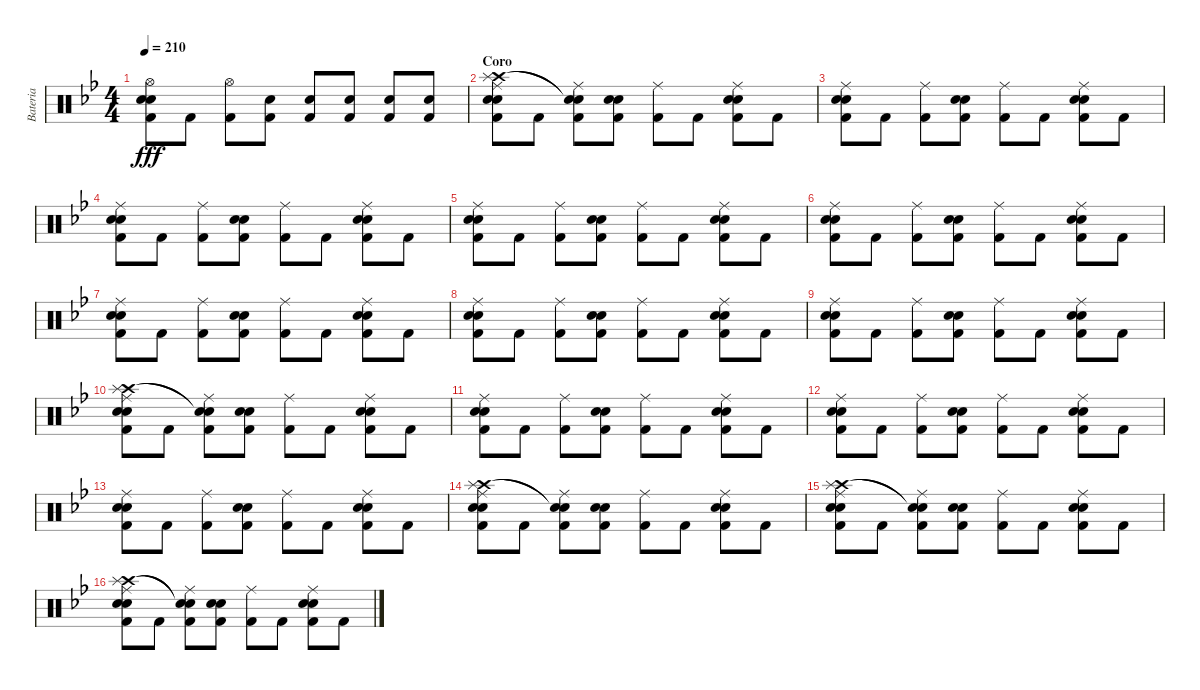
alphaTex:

\track ("Bateria" "Bateria") {instrument percussion}
\staff {score}
\articulation defaults
\ts (4 4)
\tempo 210
\clef neutral
\ks gminor
("Hi-Hat (open)" "Snare (hit) 2" "Kick (hit) 2" "Electric Snare (hit)").8{dy fff} "Kick (hit) 2".8 ("Hi-Hat (open)" "Kick (hit) 2").8 ("Snare (hit) 2" "Kick (hit) 2").8 ("Snare (hit) 2" "Kick (hit) 2").8 ("Snare (hit) 2" "Kick (hit) 2").8 ("Snare (hit) 2" "Kick (hit) 2").8 ("Snare (hit) 2" "Kick (hit) 2").8 |
\section ("" "Coro")
("Ride (middle)" "Crash high (hit)" "Splash (hit)" "Snare (hit) 2" "Electric Snare (hit)" "Kick (hit) 2").8 "Kick (hit) 2".8 ("Ride (middle)" "Snare (hit)"{t} "Snare (hit)"{t} "Kick (hit) 2").8 ("Snare (hit) 2" "Electric Snare (hit)" "Kick (hit) 2").8 ("Ride (middle)" "Kick (hit) 2").8 "Kick (hit) 2".8 ("Ride (middle)" "Snare (hit) 2" "Electric Snare (hit)" "Kick (hit) 2").8 "Kick (hit) 2".8 |
("Ride (middle)" "Snare (hit) 2" "Kick (hit) 2" "Electric Snare (hit)").8 "Kick (hit) 2".8 ("Ride (middle)" "Kick (hit) 2").8 ("Snare (hit) 2" "Kick (hit) 2" "Electric Snare (hit)").8 ("Ride (middle)" "Kick (hit) 2").8 "Kick (hit) 2".8 ("Ride (middle)" "Snare (hit) 2" "Kick (hit) 2" "Electric Snare (hit)").8 "Kick (hit) 2".8 |
("Ride (middle)" "Snare (hit) 2" "Kick (hit) 2" "Electric Snare (hit)").8 "Kick (hit) 2".8 ("Ride (middle)" "Kick (hit) 2").8 ("Snare (hit) 2" "Kick (hit) 2" "Electric Snare (hit)").8 ("Ride (middle)" "Kick (hit) 2").8 "Kick (hit) 2".8 ("Ride (middle)" "Snare (hit) 2" "Kick (hit) 2" "Electric Snare (hit)").8 "Kick (hit) 2".8 |
("Ride (middle)" "Snare (hit) 2" "Kick (hit) 2" "Electric Snare (hit)").8 "Kick (hit) 2".8 ("Ride (middle)" "Kick (hit) 2").8 ("Snare (hit) 2" "Kick (hit) 2" "Electric Snare (hit)").8 ("Ride (middle)" "Kick (hit) 2").8 "Kick (hit) 2".8 ("Ride (middle)" "Snare (hit) 2" "Kick (hit) 2" "Electric Snare (hit)").8 "Kick (hit) 2".8 |
("Ride (middle)" "Snare (hit) 2" "Kick (hit) 2" "Electric Snare (hit)").8 "Kick (hit) 2".8 ("Ride (middle)" "Kick (hit) 2").8 ("Snare (hit) 2" "Kick (hit) 2" "Electric Snare (hit)").8 ("Ride (middle)" "Kick (hit) 2").8 "Kick (hit) 2".8 ("Ride (middle)" "Snare (hit) 2" "Kick (hit) 2" "Electric Snare (hit)").8 "Kick (hit) 2".8 |
("Ride (middle)" "Snare (hit) 2" "Kick (hit) 2" "Electric Snare (hit)").8 "Kick (hit) 2".8 ("Ride (middle)" "Kick (hit) 2").8 ("Snare (hit) 2" "Kick (hit) 2" "Electric Snare (hit)").8 ("Ride (middle)" "Kick (hit) 2").8 "Kick (hit) 2".8 ("Ride (middle)" "Snare (hit) 2" "Kick (hit) 2" "Electric Snare (hit)").8 "Kick (hit) 2".8 |
("Ride (middle)" "Snare (hit) 2" "Kick (hit) 2" "Electric Snare (hit)").8 "Kick (hit) 2".8 ("Ride (middle)" "Kick (hit) 2").8 ("Snare (hit) 2" "Kick (hit) 2" "Electric Snare (hit)").8 ("Ride (middle)" "Kick (hit) 2").8 "Kick (hit) 2".8 ("Ride (middle)" "Snare (hit) 2" "Kick (hit) 2" "Electric Snare (hit)").8 "Kick (hit) 2".8 |
("Ride (middle)" "Snare (hit) 2" "Kick (hit) 2" "Electric Snare (hit)").8 "Kick (hit) 2".8 ("Ride (middle)" "Kick (hit) 2").8 ("Snare (hit) 2" "Kick (hit) 2" "Electric Snare (hit)").8 ("Ride (middle)" "Kick (hit) 2").8 "Kick (hit) 2".8 ("Ride (middle)" "Snare (hit) 2" "Kick (hit) 2" "Electric Snare (hit)").8 "Kick (hit) 2".8 |
("Ride (middle)" "Crash high (hit)" "Splash (hit)" "Snare (hit) 2" "Kick (hit) 2" "Electric Snare (hit)").8 "Kick (hit) 2".8 ("Ride (middle)" "Snare (hit)"{t} "Snare (hit)"{t} "Kick (hit) 2").8 ("Snare (hit) 2" "Kick (hit) 2" "Electric Snare (hit)").8 ("Ride (middle)" "Kick (hit) 2").8 "Kick (hit) 2".8 ("Ride (middle)" "Snare (hit) 2" "Kick (hit) 2" "Electric Snare (hit)").8 "Kick (hit) 2".8 |
("Ride (middle)" "Snare (hit) 2" "Kick (hit) 2" "Electric Snare (hit)").8 "Kick (hit) 2".8 ("Ride (middle)" "Kick (hit) 2").8 ("Snare (hit) 2" "Kick (hit) 2" "Electric Snare (hit)").8 ("Ride (middle)" "Kick (hit) 2").8 "Kick (hit) 2".8 ("Ride (middle)" "Snare (hit) 2" "Kick (hit) 2" "Electric Snare (hit)").8 "Kick (hit) 2".8 |
("Ride (middle)" "Snare (hit) 2" "Kick (hit) 2" "Electric Snare (hit)").8 "Kick (hit) 2".8 ("Ride (middle)" "Kick (hit) 2").8 ("Snare (hit) 2" "Kick (hit) 2" "Electric Snare (hit)").8 ("Ride (middle)" "Kick (hit) 2").8 "Kick (hit) 2".8 ("Ride (middle)" "Snare (hit) 2" "Kick (hit) 2" "Electric Snare (hit)").8 "Kick (hit) 2".8 |
("Ride (middle)" "Snare (hit) 2" "Kick (hit) 2" "Electric Snare (hit)").8 "Kick (hit) 2".8 ("Ride (middle)" "Kick (hit) 2").8 ("Snare (hit) 2" "Kick (hit) 2" "Electric Snare (hit)").8 ("Ride (middle)" "Kick (hit) 2").8 "Kick (hit) 2".8 ("Ride (middle)" "Snare (hit) 2" "Kick (hit) 2" "Electric Snare (hit)").8 "Kick (hit) 2".8 |
("Ride (middle)" "Crash high (hit)" "Splash (hit)" "Snare (hit) 2" "Kick (hit) 2" "Electric Snare (hit)").8 "Kick (hit) 2".8 ("Ride (middle)" "Snare (hit)"{t} "Snare (hit)"{t} "Kick (hit) 2").8 ("Snare (hit) 2" "Kick (hit) 2" "Electric Snare (hit)").8 ("Ride (middle)" "Kick (hit) 2").8 "Kick (hit) 2".8 ("Ride (middle)" "Snare (hit) 2" "Kick (hit) 2" "Electric Snare (hit)").8 "Kick (hit) 2".8 |
("Ride (middle)" "Crash high (hit)" "Splash (hit)" "Snare (hit) 2" "Kick (hit) 2" "Electric Snare (hit)").8 "Kick (hit) 2".8 ("Ride (middle)" "Snare (hit)"{t} "Snare (hit)"{t} "Kick (hit) 2").8 ("Snare (hit) 2" "Kick (hit) 2" "Electric Snare (hit)").8 ("Ride (middle)" "Kick (hit) 2").8 "Kick (hit) 2".8 ("Ride (middle)" "Snare (hit) 2" "Kick (hit) 2" "Electric Snare (hit)").8 "Kick (hit) 2".8 |
("Ride (middle)" "Crash high (hit)" "Splash (hit)" "Snare (hit) 2" "Kick (hit) 2" "Electric Snare (hit)").8 "Kick (hit) 2".8 ("Ride (middle)" "Snare (hit)"{t} "Snare (hit)"{t} "Kick (hit) 2").8 ("Snare (hit) 2" "Kick (hit) 2" "Electric Snare (hit)").8 ("Ride (middle)" "Kick (hit) 2").8 "Kick (hit) 2".8 ("Ride (middle)" "Snare (hit) 2" "Kick (hit) 2" "Electric Snare (hit)").8 "Kick (hit) 2".8
